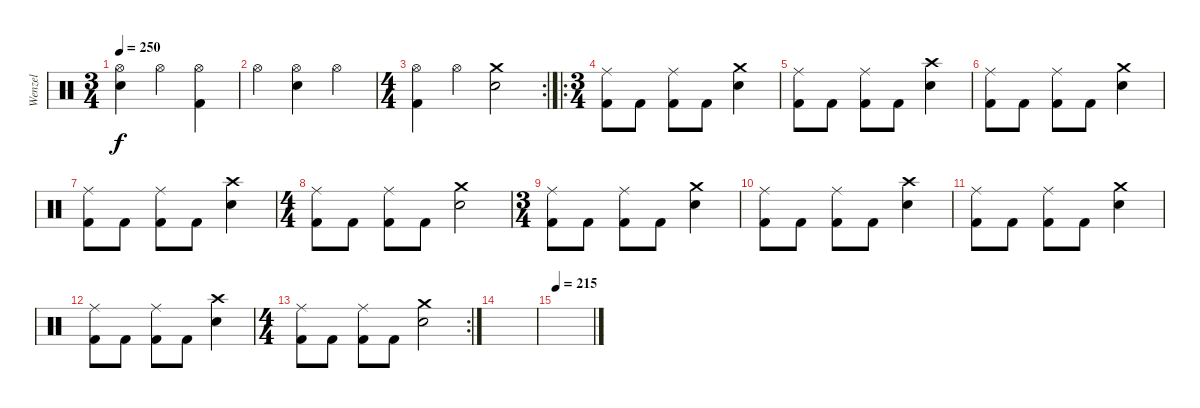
\track ("Wenzel" "Wenzel") {instrument percussion}
\staff {score}
\articulation defaults
\ts (3 4)
\tempo 250
\clef neutral
\ks c
("Hi-Hat (open)" "Snare (hit) 2").4{dy f} "Hi-Hat (open)".4 ("Hi-Hat (open)" "Kick (hit) 2").4 |
"Hi-Hat (open)".4 ("Hi-Hat (open)" "Snare (hit) 2").4 "Hi-Hat (open)".4 |
\rc 2
\ts (4 4)
("Hi-Hat (open)" "Kick (hit) 2").4 "Hi-Hat (open)".4 ("Crash medium (hit)" "Snare (hit) 2").2 |
\ro
\ts (3 4)
("Ride (middle)" "Kick (hit) 2").8 "Kick (hit) 2".8 ("Ride (middle)" "Kick (hit) 2").8 "Kick (hit) 2".8 ("Crash medium (hit)" "Snare (hit) 2").4 |
("Ride (middle)" "Kick (hit) 2").8 "Kick (hit) 2".8 ("Ride (middle)" "Kick (hit) 2").8 "Kick (hit) 2".8 ("Crash high (hit)" "Snare (hit) 2").4 |
("Ride (middle)" "Kick (hit) 2").8 "Kick (hit) 2".8 ("Ride (middle)" "Kick (hit) 2").8 "Kick (hit) 2".8 ("Crash medium (hit)" "Snare (hit) 2").4 |
("Ride (middle)" "Kick (hit) 2").8 "Kick (hit) 2".8 ("Ride (middle)" "Kick (hit) 2").8 "Kick (hit) 2".8 ("Crash high (hit)" "Snare (hit) 2").4 |
\ts (4 4)
("Ride (middle)" "Kick (hit) 2").8 "Kick (hit) 2".8 ("Ride (middle)" "Kick (hit) 2").8 "Kick (hit) 2".8 ("Crash medium (hit)" "Snare (hit) 2").2 |
\ts (3 4)
("Ride (middle)" "Kick (hit) 2").8 "Kick (hit) 2".8 ("Ride (middle)" "Kick (hit) 2").8 "Kick (hit) 2".8 ("Crash medium (hit)" "Snare (hit) 2").4 |
("Ride (middle)" "Kick (hit) 2").8 "Kick (hit) 2".8 ("Ride (middle)" "Kick (hit) 2").8 "Kick (hit) 2".8 ("Crash high (hit)" "Snare (hit) 2").4 |
("Ride (middle)" "Kick (hit) 2").8 "Kick (hit) 2".8 ("Ride (middle)" "Kick (hit) 2").8 "Kick (hit) 2".8 ("Crash medium (hit)" "Snare (hit) 2").4 |
("Ride (middle)" "Kick (hit) 2").8 "Kick (hit) 2".8 ("Ride (middle)" "Kick (hit) 2").8 "Kick (hit) 2".8 ("Crash high (hit)" "Snare (hit) 2").4 |
\rc 2
\ts (4 4)
("Ride (middle)" "Kick (hit) 2").8 "Kick (hit) 2".8 ("Ride (middle)" "Kick (hit) 2").8 "Kick (hit) 2".8 ("Crash medium (hit)" "Snare (hit) 2").2 |
|
\tempo 215
